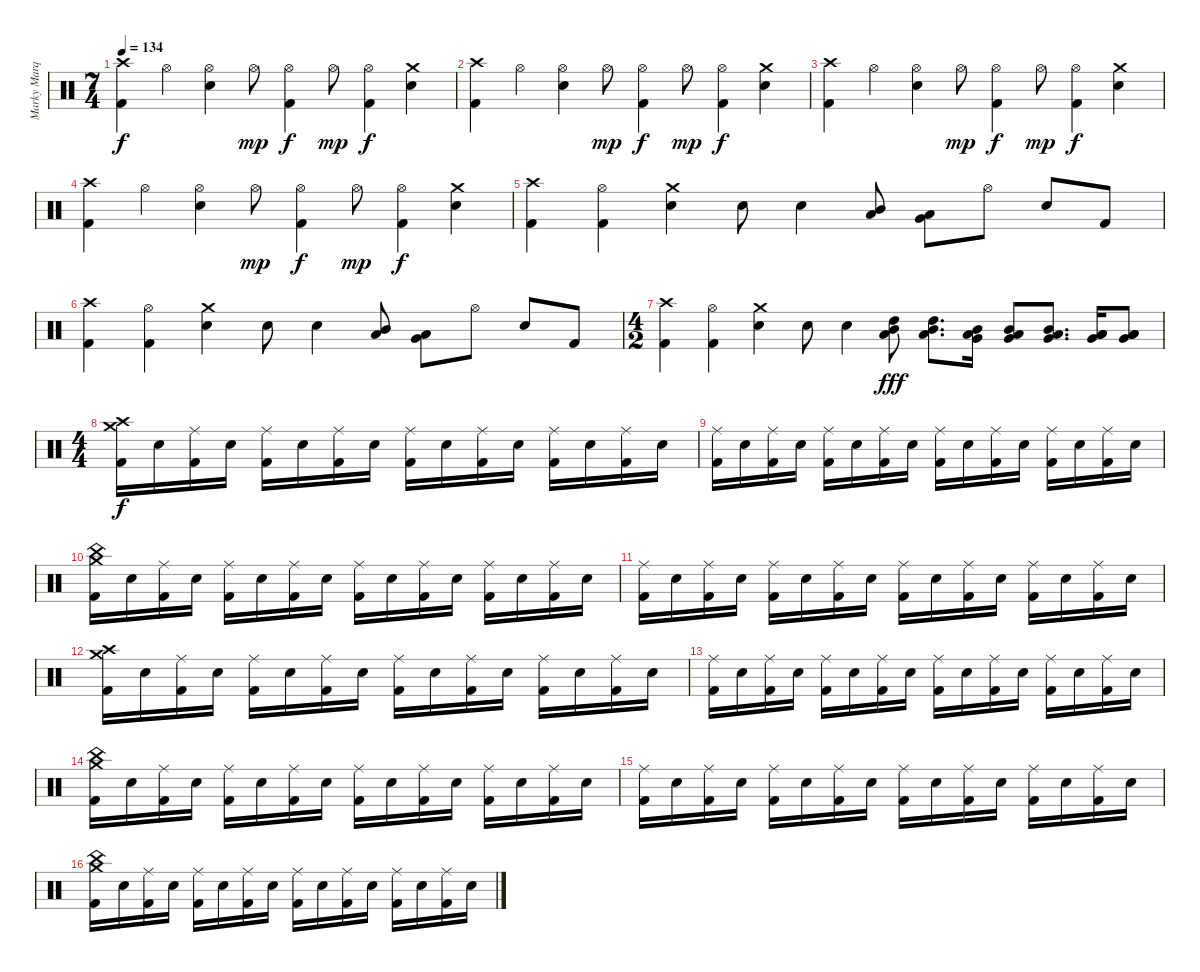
\track ("Marky Marquis" "Marky Marq") {instrument percussion}
\staff {score}
\articulation defaults
\ts (7 4)
\tempo 134
\clef neutral
\ks c
("Crash high (hit)" "Kick (hit) 2").4{dy f} "Hi-Hat (open)".4 ("Hi-Hat (open)" "Electric Snare (hit)").4 "Hi-Hat (open)".8{dy mp} ("Hi-Hat (open)" "Kick (hit) 2").4{dy f} "Hi-Hat (open)".8{dy mp} ("Hi-Hat (open)" "Kick (hit) 2").4{dy f} ("Crash medium (hit)" "Electric Snare (hit)").4 |
("Crash high (hit)" "Kick (hit) 2").4 "Hi-Hat (open)".4 ("Hi-Hat (open)" "Electric Snare (hit)").4 "Hi-Hat (open)".8{dy mp} ("Hi-Hat (open)" "Kick (hit) 2").4{dy f} "Hi-Hat (open)".8{dy mp} ("Hi-Hat (open)" "Kick (hit) 2").4{dy f} ("Crash medium (hit)" "Electric Snare (hit)").4 |
("Crash high (hit)" "Kick (hit) 2").4 "Hi-Hat (open)".4 ("Hi-Hat (open)" "Electric Snare (hit)").4 "Hi-Hat (open)".8{dy mp} ("Hi-Hat (open)" "Kick (hit) 2").4{dy f} "Hi-Hat (open)".8{dy mp} ("Hi-Hat (open)" "Kick (hit) 2").4{dy f} ("Crash medium (hit)" "Electric Snare (hit)").4 |
("Crash high (hit)" "Kick (hit) 2").4 "Hi-Hat (open)".4 ("Hi-Hat (open)" "Electric Snare (hit)").4 "Hi-Hat (open)".8{dy mp} ("Hi-Hat (open)" "Kick (hit) 2").4{dy f} "Hi-Hat (open)".8{dy mp} ("Hi-Hat (open)" "Kick (hit) 2").4{dy f} ("Crash medium (hit)" "Electric Snare (hit)").4 |
("Crash high (hit)" "Kick (hit) 2").4 ("Hi-Hat (open)" "Kick (hit) 2").4 ("Crash medium (hit)" "Electric Snare (hit)").4 "Electric Snare (hit)".8 "Electric Snare (hit)".4 ("Mid Tom (hit)" "Low Tom (hit)").8 ("Low Tom (hit)" "Very Low Tom (hit)").8 "Hi-Hat (open)".8 "Electric Snare (hit)".8 "Kick (hit) 2".8 |
("Crash high (hit)" "Kick (hit) 2").4 ("Hi-Hat (open)" "Kick (hit) 2").4 ("Crash medium (hit)" "Electric Snare (hit)").4 "Electric Snare (hit)".8 "Electric Snare (hit)".4 ("Mid Tom (hit)" "Low Tom (hit)").8 ("Low Tom (hit)" "Very Low Tom (hit)").8 "Hi-Hat (open)".8 "Electric Snare (hit)".8 "Kick (hit) 2".8 |
\ts (4 2)
("Crash high (hit)" "Kick (hit) 2").4 ("Hi-Hat (open)" "Kick (hit) 2").4 ("Crash medium (hit)" "Electric Snare (hit)").4 "Electric Snare (hit)".8 "Electric Snare (hit)".4 ("High Tom (hit)" "Mid Tom (hit)" "Low Tom (hit)").8{dy fff} ("High Tom (hit)" "Mid Tom (hit)" "Low Tom (hit)").8{d} ("Mid Tom (hit)" "Low Tom (hit)" "Very Low Tom (hit)").16 ("Mid Tom (hit)" "Low Tom (hit)" "Very Low Tom (hit)").8 ("Mid Tom (hit)" "Low Tom (hit)" "Very Low Tom (hit)").8{d} ("Low Tom (hit)" "Very Low Tom (hit)" "Low Floor Tom (hit)").16 ("Low Tom (hit)" "Very Low Tom (hit)" "Low Floor Tom (hit)").8 |
\ts (4 4)
("Crash high (hit)" "Crash medium (hit)" "Kick (hit) 2").16{dy f} "Electric Snare (hit)".16 ("Ride (middle)" "Kick (hit) 2").16 "Electric Snare (hit)".16 ("Ride (middle)" "Kick (hit) 2").16 "Electric Snare (hit)".16 ("Ride (middle)" "Kick (hit) 2").16 "Electric Snare (hit)".16 ("Ride (middle)" "Kick (hit) 2").16 "Electric Snare (hit)".16 ("Ride (middle)" "Kick (hit) 2").16 "Electric Snare (hit)".16 ("Ride (middle)" "Kick (hit) 2").16 "Electric Snare (hit)".16 ("Ride (middle)" "Kick (hit) 2").16 "Electric Snare (hit)".16 |
("Ride (middle)" "Kick (hit) 2").16 "Electric Snare (hit)".16 ("Ride (middle)" "Kick (hit) 2").16 "Electric Snare (hit)".16 ("Ride (middle)" "Kick (hit) 2").16 "Electric Snare (hit)".16 ("Ride (middle)" "Kick (hit) 2").16 "Electric Snare (hit)".16 ("Ride (middle)" "Kick (hit) 2").16 "Electric Snare (hit)".16 ("Ride (middle)" "Kick (hit) 2").16 "Electric Snare (hit)".16 ("Ride (middle)" "Kick (hit) 2").16 "Electric Snare (hit)".16 ("Ride (middle)" "Kick (hit) 2").16 "Electric Snare (hit)".16 |
("Crash medium (hit)" "China (hit)" "Kick (hit) 2").16 "Electric Snare (hit)".16 ("Ride (middle)" "Kick (hit) 2").16 "Electric Snare (hit)".16 ("Ride (middle)" "Kick (hit) 2").16 "Electric Snare (hit)".16 ("Ride (middle)" "Kick (hit) 2").16 "Electric Snare (hit)".16 ("Ride (middle)" "Kick (hit) 2").16 "Electric Snare (hit)".16 ("Ride (middle)" "Kick (hit) 2").16 "Electric Snare (hit)".16 ("Ride (middle)" "Kick (hit) 2").16 "Electric Snare (hit)".16 ("Ride (middle)" "Kick (hit) 2").16 "Electric Snare (hit)".16 |
("Ride (middle)" "Kick (hit) 2").16 "Electric Snare (hit)".16 ("Ride (middle)" "Kick (hit) 2").16 "Electric Snare (hit)".16 ("Ride (middle)" "Kick (hit) 2").16 "Electric Snare (hit)".16 ("Ride (middle)" "Kick (hit) 2").16 "Electric Snare (hit)".16 ("Ride (middle)" "Kick (hit) 2").16 "Electric Snare (hit)".16 ("Ride (middle)" "Kick (hit) 2").16 "Electric Snare (hit)".16 ("Ride (middle)" "Kick (hit) 2").16 "Electric Snare (hit)".16 ("Ride (middle)" "Kick (hit) 2").16 "Electric Snare (hit)".16 |
("Crash high (hit)" "Crash medium (hit)" "Kick (hit) 2").16 "Electric Snare (hit)".16 ("Ride (middle)" "Kick (hit) 2").16 "Electric Snare (hit)".16 ("Ride (middle)" "Kick (hit) 2").16 "Electric Snare (hit)".16 ("Ride (middle)" "Kick (hit) 2").16 "Electric Snare (hit)".16 ("Ride (middle)" "Kick (hit) 2").16 "Electric Snare (hit)".16 ("Ride (middle)" "Kick (hit) 2").16 "Electric Snare (hit)".16 ("Ride (middle)" "Kick (hit) 2").16 "Electric Snare (hit)".16 ("Ride (middle)" "Kick (hit) 2").16 "Electric Snare (hit)".16 |
("Ride (middle)" "Kick (hit) 2").16 "Electric Snare (hit)".16 ("Ride (middle)" "Kick (hit) 2").16 "Electric Snare (hit)".16 ("Ride (middle)" "Kick (hit) 2").16 "Electric Snare (hit)".16 ("Ride (middle)" "Kick (hit) 2").16 "Electric Snare (hit)".16 ("Ride (middle)" "Kick (hit) 2").16 "Electric Snare (hit)".16 ("Ride (middle)" "Kick (hit) 2").16 "Electric Snare (hit)".16 ("Ride (middle)" "Kick (hit) 2").16 "Electric Snare (hit)".16 ("Ride (middle)" "Kick (hit) 2").16 "Electric Snare (hit)".16 |
("Crash medium (hit)" "China (hit)" "Kick (hit) 2").16 "Electric Snare (hit)".16 ("Ride (middle)" "Kick (hit) 2").16 "Electric Snare (hit)".16 ("Ride (middle)" "Kick (hit) 2").16 "Electric Snare (hit)".16 ("Ride (middle)" "Kick (hit) 2").16 "Electric Snare (hit)".16 ("Ride (middle)" "Kick (hit) 2").16 "Electric Snare (hit)".16 ("Ride (middle)" "Kick (hit) 2").16 "Electric Snare (hit)".16 ("Ride (middle)" "Kick (hit) 2").16 "Electric Snare (hit)".16 ("Ride (middle)" "Kick (hit) 2").16 "Electric Snare (hit)".16 |
("Ride (middle)" "Kick (hit) 2").16 "Electric Snare (hit)".16 ("Ride (middle)" "Kick (hit) 2").16 "Electric Snare (hit)".16 ("Ride (middle)" "Kick (hit) 2").16 "Electric Snare (hit)".16 ("Ride (middle)" "Kick (hit) 2").16 "Electric Snare (hit)".16 ("Ride (middle)" "Kick (hit) 2").16 "Electric Snare (hit)".16 ("Ride (middle)" "Kick (hit) 2").16 "Electric Snare (hit)".16 ("Ride (middle)" "Kick (hit) 2").16 "Electric Snare (hit)".16 ("Ride (middle)" "Kick (hit) 2").16 "Electric Snare (hit)".16 |
("Crash medium (hit)" "China (hit)" "Kick (hit) 2").16 "Electric Snare (hit)".16 ("Ride (middle)" "Kick (hit) 2").16 "Electric Snare (hit)".16 ("Ride (middle)" "Kick (hit) 2").16 "Electric Snare (hit)".16 ("Ride (middle)" "Kick (hit) 2").16 "Electric Snare (hit)".16 ("Ride (middle)" "Kick (hit) 2").16 "Electric Snare (hit)".16 ("Ride (middle)" "Kick (hit) 2").16 "Electric Snare (hit)".16 ("Ride (middle)" "Kick (hit) 2").16 "Electric Snare (hit)".16 ("Ride (middle)" "Kick (hit) 2").16 "Electric Snare (hit)".16
